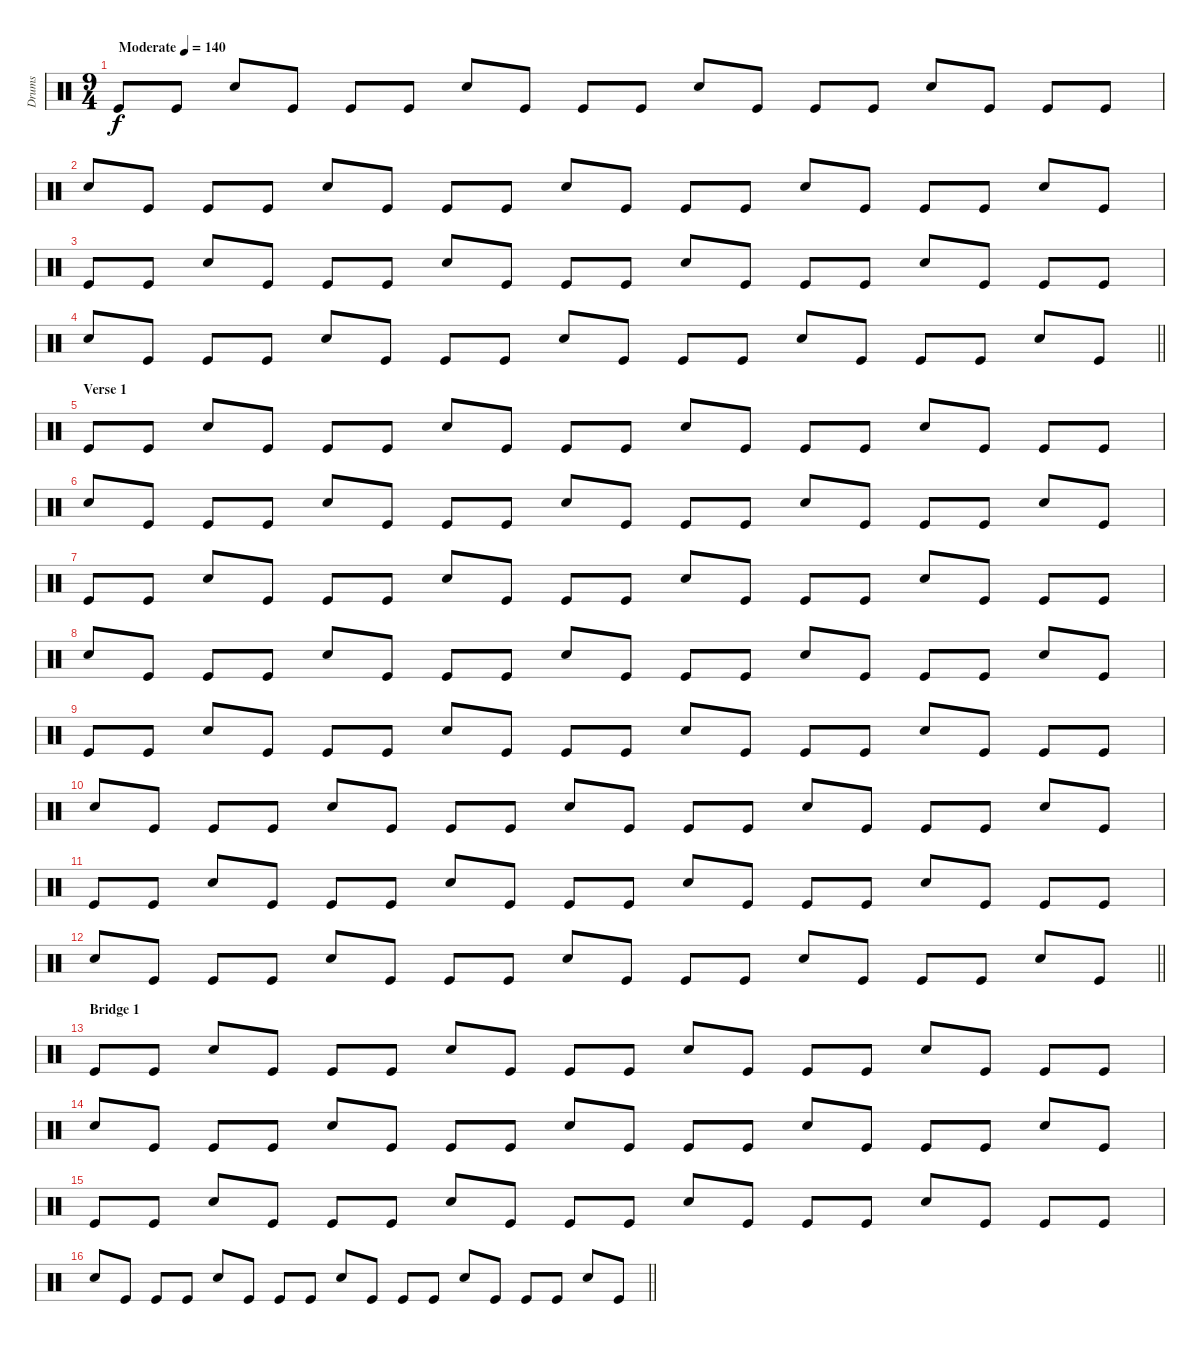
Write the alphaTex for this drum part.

\track ("Drums" "Drums") {instrument percussion}
\staff {score}
\articulation defaults
\ts (9 4)
\tempo (140 "Moderate")
\clef neutral
\ks c "Kick (hit)".8{dy f volume 0} "Kick (hit)".8 "Snare (hit) 2".8 "Kick (hit)".8 "Kick (hit)".8 "Kick (hit)".8 "Snare (hit) 2".8 "Kick (hit)".8 "Kick (hit)".8 "Kick (hit)".8 "Snare (hit) 2".8 "Kick (hit)".8 "Kick (hit)".8 "Kick (hit)".8 "Snare (hit) 2".8 "Kick (hit)".8 "Kick (hit)".8 "Kick (hit)".8
|
"Snare (hit) 2".8{volume 5} "Kick (hit)".8 "Kick (hit)".8 "Kick (hit)".8 "Snare (hit) 2".8 "Kick (hit)".8 "Kick (hit)".8 "Kick (hit)".8 "Snare (hit) 2".8 "Kick (hit)".8 "Kick (hit)".8 "Kick (hit)".8 "Snare (hit) 2".8 "Kick (hit)".8 "Kick (hit)".8 "Kick (hit)".8 "Snare (hit) 2".8 "Kick (hit)".8 |
"Kick (hit)".8{volume 10} "Kick (hit)".8 "Snare (hit) 2".8 "Kick (hit)".8 "Kick (hit)".8 "Kick (hit)".8 "Snare (hit) 2".8 "Kick (hit)".8 "Kick (hit)".8 "Kick (hit)".8 "Snare (hit) 2".8 "Kick (hit)".8 "Kick (hit)".8 "Kick (hit)".8 "Snare (hit) 2".8 "Kick (hit)".8 "Kick (hit)".8 "Kick (hit)".8 |
\barLineRight lightlight "Snare (hit) 2".8{volume 13} "Kick (hit)".8 "Kick (hit)".8 "Kick (hit)".8 "Snare (hit) 2".8 "Kick (hit)".8 "Kick (hit)".8 "Kick (hit)".8 "Snare (hit) 2".8 "Kick (hit)".8 "Kick (hit)".8 "Kick (hit)".8 "Snare (hit) 2".8 "Kick (hit)".8 "Kick (hit)".8 "Kick (hit)".8 "Snare (hit) 2".8 "Kick (hit)".8
|
\section ("" "Verse 1")
"Kick (hit)".8 "Kick (hit)".8 "Snare (hit) 2".8 "Kick (hit)".8 "Kick (hit)".8 "Kick (hit)".8 "Snare (hit) 2".8 "Kick (hit)".8 "Kick (hit)".8 "Kick (hit)".8 "Snare (hit) 2".8 "Kick (hit)".8 "Kick (hit)".8 "Kick (hit)".8 "Snare (hit) 2".8 "Kick (hit)".8 "Kick (hit)".8 "Kick (hit)".8 |
"Snare (hit) 2".8 "Kick (hit)".8 "Kick (hit)".8 "Kick (hit)".8 "Snare (hit) 2".8 "Kick (hit)".8 "Kick (hit)".8 "Kick (hit)".8 "Snare (hit) 2".8 "Kick (hit)".8 "Kick (hit)".8 "Kick (hit)".8 "Snare (hit) 2".8 "Kick (hit)".8 "Kick (hit)".8 "Kick (hit)".8 "Snare (hit) 2".8 "Kick (hit)".8 |
"Kick (hit)".8 "Kick (hit)".8 "Snare (hit) 2".8 "Kick (hit)".8 "Kick (hit)".8 "Kick (hit)".8 "Snare (hit) 2".8 "Kick (hit)".8 "Kick (hit)".8 "Kick (hit)".8 "Snare (hit) 2".8 "Kick (hit)".8 "Kick (hit)".8 "Kick (hit)".8 "Snare (hit) 2".8 "Kick (hit)".8 "Kick (hit)".8 "Kick (hit)".8 |
"Snare (hit) 2".8 "Kick (hit)".8 "Kick (hit)".8 "Kick (hit)".8 "Snare (hit) 2".8 "Kick (hit)".8 "Kick (hit)".8 "Kick (hit)".8 "Snare (hit) 2".8 "Kick (hit)".8 "Kick (hit)".8 "Kick (hit)".8 "Snare (hit) 2".8 "Kick (hit)".8 "Kick (hit)".8 "Kick (hit)".8 "Snare (hit) 2".8 "Kick (hit)".8 |
"Kick (hit)".8 "Kick (hit)".8 "Snare (hit) 2".8 "Kick (hit)".8 "Kick (hit)".8 "Kick (hit)".8 "Snare (hit) 2".8 "Kick (hit)".8 "Kick (hit)".8 "Kick (hit)".8 "Snare (hit) 2".8 "Kick (hit)".8 "Kick (hit)".8 "Kick (hit)".8 "Snare (hit) 2".8 "Kick (hit)".8 "Kick (hit)".8 "Kick (hit)".8 |
"Snare (hit) 2".8 "Kick (hit)".8 "Kick (hit)".8 "Kick (hit)".8 "Snare (hit) 2".8 "Kick (hit)".8 "Kick (hit)".8 "Kick (hit)".8 "Snare (hit) 2".8 "Kick (hit)".8 "Kick (hit)".8 "Kick (hit)".8 "Snare (hit) 2".8 "Kick (hit)".8 "Kick (hit)".8 "Kick (hit)".8 "Snare (hit) 2".8 "Kick (hit)".8 |
"Kick (hit)".8 "Kick (hit)".8 "Snare (hit) 2".8 "Kick (hit)".8 "Kick (hit)".8 "Kick (hit)".8 "Snare (hit) 2".8 "Kick (hit)".8 "Kick (hit)".8 "Kick (hit)".8 "Snare (hit) 2".8 "Kick (hit)".8 "Kick (hit)".8 "Kick (hit)".8 "Snare (hit) 2".8 "Kick (hit)".8 "Kick (hit)".8 "Kick (hit)".8 |
\barLineRight lightlight "Snare (hit) 2".8 "Kick (hit)".8 "Kick (hit)".8 "Kick (hit)".8 "Snare (hit) 2".8 "Kick (hit)".8 "Kick (hit)".8 "Kick (hit)".8 "Snare (hit) 2".8 "Kick (hit)".8 "Kick (hit)".8 "Kick (hit)".8 "Snare (hit) 2".8 "Kick (hit)".8 "Kick (hit)".8 "Kick (hit)".8 "Snare (hit) 2".8 "Kick (hit)".8
|
\section ("" "Bridge 1")
"Kick (hit)".8 "Kick (hit)".8 "Snare (hit) 2".8 "Kick (hit)".8 "Kick (hit)".8 "Kick (hit)".8 "Snare (hit) 2".8 "Kick (hit)".8 "Kick (hit)".8 "Kick (hit)".8 "Snare (hit) 2".8 "Kick (hit)".8 "Kick (hit)".8 "Kick (hit)".8 "Snare (hit) 2".8 "Kick (hit)".8 "Kick (hit)".8 "Kick (hit)".8 |
"Snare (hit) 2".8 "Kick (hit)".8 "Kick (hit)".8 "Kick (hit)".8 "Snare (hit) 2".8 "Kick (hit)".8 "Kick (hit)".8 "Kick (hit)".8 "Snare (hit) 2".8 "Kick (hit)".8 "Kick (hit)".8 "Kick (hit)".8 "Snare (hit) 2".8 "Kick (hit)".8 "Kick (hit)".8 "Kick (hit)".8 "Snare (hit) 2".8 "Kick (hit)".8 |
"Kick (hit)".8 "Kick (hit)".8 "Snare (hit) 2".8 "Kick (hit)".8 "Kick (hit)".8 "Kick (hit)".8 "Snare (hit) 2".8 "Kick (hit)".8 "Kick (hit)".8 "Kick (hit)".8 "Snare (hit) 2".8 "Kick (hit)".8 "Kick (hit)".8 "Kick (hit)".8 "Snare (hit) 2".8 "Kick (hit)".8 "Kick (hit)".8 "Kick (hit)".8 |
\barLineRight lightlight "Snare (hit) 2".8 "Kick (hit)".8 "Kick (hit)".8 "Kick (hit)".8 "Snare (hit) 2".8 "Kick (hit)".8 "Kick (hit)".8 "Kick (hit)".8 "Snare (hit) 2".8 "Kick (hit)".8 "Kick (hit)".8 "Kick (hit)".8 "Snare (hit) 2".8 "Kick (hit)".8 "Kick (hit)".8 "Kick (hit)".8 "Snare (hit) 2".8 "Kick (hit)".8
